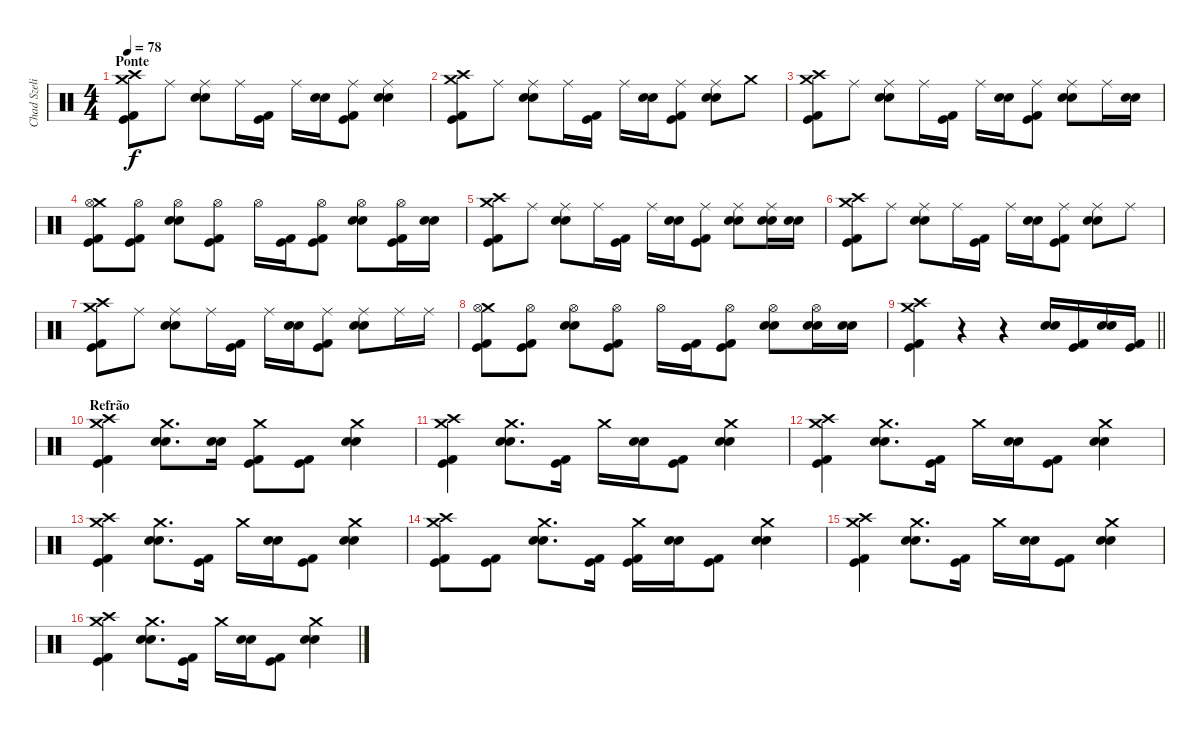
\track ("Chad Szeliga" "Chad Szeli") {instrument percussion}
\staff {score}
\articulation defaults
\ts (4 4)
\section ("" "Ponte")
\tempo 78
\clef neutral
\ks c
("Crash high (hit)" "Kick (hit) 2" "Kick (hit)" "Crash medium (hit)").8{dy f} "Ride (middle)".8 ("Ride (middle)" "Snare (hit) 2" "Snare (hit) 2").8 "Ride (middle)".16 ("Kick (hit) 2" "Kick (hit)").16 "Ride (middle)".16 ("Snare (hit) 2" "Snare (hit) 2").16 ("Ride (middle)" "Kick (hit) 2" "Kick (hit)").8 ("Ride (middle)" "Snare (hit) 2" "Snare (hit) 2").4 |
("Crash high (hit)" "Kick (hit) 2" "Kick (hit)" "Crash medium (hit)").8 "Ride (middle)".8 ("Ride (middle)" "Snare (hit) 2" "Snare (hit) 2").8 "Ride (middle)".16 ("Kick (hit) 2" "Kick (hit)").16 "Ride (middle)".16 ("Snare (hit) 2" "Snare (hit) 2").16 ("Ride (middle)" "Kick (hit) 2" "Kick (hit)").8 ("Ride (middle)" "Snare (hit) 2" "Snare (hit) 2").8 "Crash medium (hit)".8 |
("Crash high (hit)" "Kick (hit) 2" "Kick (hit)" "Crash medium (hit)").8 "Ride (middle)".8 ("Ride (middle)" "Snare (hit) 2" "Snare (hit) 2").8 "Ride (middle)".16 ("Kick (hit) 2" "Kick (hit)").16 "Ride (middle)".16 ("Snare (hit) 2" "Snare (hit) 2").16 ("Ride (middle)" "Kick (hit) 2" "Kick (hit)").8 ("Ride (middle)" "Snare (hit) 2" "Snare (hit) 2").8 "Ride (middle)".16 ("Snare (hit) 2" "Snare (hit) 2").16 |
("Crash medium (hit)" "Kick (hit) 2" "Kick (hit)" "Hi-Hat (open)").8 ("Kick (hit) 2" "Kick (hit)" "Hi-Hat (open)").8 ("Snare (hit) 2" "Snare (hit) 2" "Hi-Hat (open)").8 ("Kick (hit) 2" "Kick (hit)" "Hi-Hat (open)").8 "Hi-Hat (open)".16 ("Kick (hit) 2" "Kick (hit)").16 ("Kick (hit) 2" "Kick (hit)" "Hi-Hat (open)").8 ("Snare (hit) 2" "Snare (hit) 2" "Hi-Hat (open)").8 ("Kick (hit) 2" "Kick (hit)" "Hi-Hat (open)").16 ("Snare (hit) 2" "Snare (hit) 2").16 |
("Crash high (hit)" "Kick (hit) 2" "Kick (hit)" "Crash medium (hit)").8 "Ride (middle)".8 ("Ride (middle)" "Snare (hit) 2" "Snare (hit) 2").8 "Ride (middle)".16 ("Kick (hit) 2" "Kick (hit)").16 "Ride (middle)".16 ("Snare (hit) 2" "Snare (hit) 2").16 ("Ride (middle)" "Kick (hit) 2" "Kick (hit)").8 ("Ride (middle)" "Snare (hit) 2" "Snare (hit) 2").8 ("Ride (middle)" "Snare (hit) 2" "Snare (hit) 2").16 ("Snare (hit) 2" "Snare (hit) 2").16 |
("Crash high (hit)" "Kick (hit) 2" "Kick (hit)" "Crash medium (hit)").8 "Ride (middle)".8 ("Ride (middle)" "Snare (hit) 2" "Snare (hit) 2").8 "Ride (middle)".16 ("Kick (hit) 2" "Kick (hit)").16 "Ride (middle)".16 ("Snare (hit) 2" "Snare (hit) 2").16 ("Ride (middle)" "Kick (hit) 2" "Kick (hit)").8 ("Ride (middle)" "Snare (hit) 2" "Snare (hit) 2").8 "Ride (middle)".8 |
("Crash high (hit)" "Kick (hit) 2" "Kick (hit)" "Crash medium (hit)").8 "Ride (middle)".8 ("Ride (middle)" "Snare (hit) 2" "Snare (hit) 2").8 "Ride (middle)".16 ("Kick (hit) 2" "Kick (hit)").16 "Ride (middle)".16 ("Snare (hit) 2" "Snare (hit) 2").16 ("Ride (middle)" "Kick (hit) 2" "Kick (hit)").8 ("Ride (middle)" "Snare (hit) 2" "Snare (hit) 2").8 "Ride (middle)".16 "Ride (middle)".16 |
("Crash medium (hit)" "Kick (hit) 2" "Kick (hit)" "Hi-Hat (open)").8 ("Kick (hit) 2" "Kick (hit)" "Hi-Hat (open)").8 ("Snare (hit) 2" "Snare (hit) 2" "Hi-Hat (open)").8 ("Kick (hit) 2" "Kick (hit)" "Hi-Hat (open)").8 "Hi-Hat (open)".16 ("Kick (hit) 2" "Kick (hit)").16 ("Kick (hit) 2" "Kick (hit)" "Hi-Hat (open)").8 ("Snare (hit) 2" "Snare (hit) 2" "Hi-Hat (open)").8 ("Snare (hit) 2" "Snare (hit) 2" "Hi-Hat (open)").16 ("Snare (hit) 2" "Snare (hit) 2").16 |
\barLineRight lightlight
("Crash high (hit)" "Kick (hit) 2" "Kick (hit)" "Crash medium (hit)").4 r.4 r.4 ("Snare (hit) 2" "Snare (hit) 2").16 ("Kick (hit) 2" "Kick (hit)").16 ("Snare (hit) 2" "Snare (hit) 2").16 ("Kick (hit) 2" "Kick (hit)").16 |
\section ("" "Refrão")
("Crash high (hit)" "Kick (hit) 2" "Kick (hit)" "Crash medium (hit)").4 ("Crash medium (hit)" "Snare (hit) 2" "Snare (hit) 2").8{d} ("Snare (hit) 2" "Snare (hit) 2").16 ("Crash medium (hit)" "Kick (hit) 2" "Kick (hit)").8 ("Kick (hit) 2" "Kick (hit)").8 ("Crash medium (hit)" "Snare (hit) 2" "Snare (hit) 2").4 |
("Crash high (hit)" "Kick (hit) 2" "Kick (hit)" "Crash medium (hit)").4 ("Crash medium (hit)" "Snare (hit) 2" "Snare (hit) 2").8{d} ("Kick (hit) 2" "Kick (hit)").16 "Crash medium (hit)".16 ("Snare (hit) 2" "Snare (hit) 2").16 ("Kick (hit) 2" "Kick (hit)").8 ("Crash medium (hit)" "Snare (hit) 2" "Snare (hit) 2").4 |
("Crash high (hit)" "Kick (hit) 2" "Kick (hit)" "Crash medium (hit)").4 ("Crash medium (hit)" "Snare (hit) 2" "Snare (hit) 2").8{d} ("Kick (hit) 2" "Kick (hit)").16 "Crash medium (hit)".16 ("Snare (hit) 2" "Snare (hit) 2").16 ("Kick (hit) 2" "Kick (hit)").8 ("Crash medium (hit)" "Snare (hit) 2" "Snare (hit) 2").4 |
("Crash high (hit)" "Kick (hit) 2" "Kick (hit)" "Crash medium (hit)").4 ("Crash medium (hit)" "Snare (hit) 2" "Snare (hit) 2").8{d} ("Kick (hit) 2" "Kick (hit)").16 "Crash medium (hit)".16 ("Snare (hit) 2" "Snare (hit) 2").16 ("Kick (hit) 2" "Kick (hit)").8 ("Crash medium (hit)" "Snare (hit) 2" "Snare (hit) 2").4 |
("Crash high (hit)" "Kick (hit) 2" "Kick (hit)" "Crash medium (hit)").8 ("Kick (hit) 2" "Kick (hit)").8 ("Crash medium (hit)" "Snare (hit) 2" "Snare (hit) 2").8{d} ("Kick (hit) 2" "Kick (hit)").16 ("Crash medium (hit)" "Kick (hit) 2" "Kick (hit)").16 ("Snare (hit) 2" "Snare (hit) 2").16 ("Kick (hit) 2" "Kick (hit)").8 ("Crash medium (hit)" "Snare (hit) 2" "Snare (hit) 2").4 |
("Crash high (hit)" "Kick (hit) 2" "Kick (hit)" "Crash medium (hit)").4 ("Crash medium (hit)" "Snare (hit) 2" "Snare (hit) 2").8{d} ("Kick (hit) 2" "Kick (hit)").16 "Crash medium (hit)".16 ("Snare (hit) 2" "Snare (hit) 2").16 ("Kick (hit) 2" "Kick (hit)").8 ("Crash medium (hit)" "Snare (hit) 2" "Snare (hit) 2").4 |
("Crash high (hit)" "Kick (hit) 2" "Kick (hit)" "Crash medium (hit)").4 ("Crash medium (hit)" "Snare (hit) 2" "Snare (hit) 2").8{d} ("Kick (hit) 2" "Kick (hit)").16 "Crash medium (hit)".16 ("Snare (hit) 2" "Snare (hit) 2").16 ("Kick (hit) 2" "Kick (hit)").8 ("Crash medium (hit)" "Snare (hit) 2" "Snare (hit) 2").4
